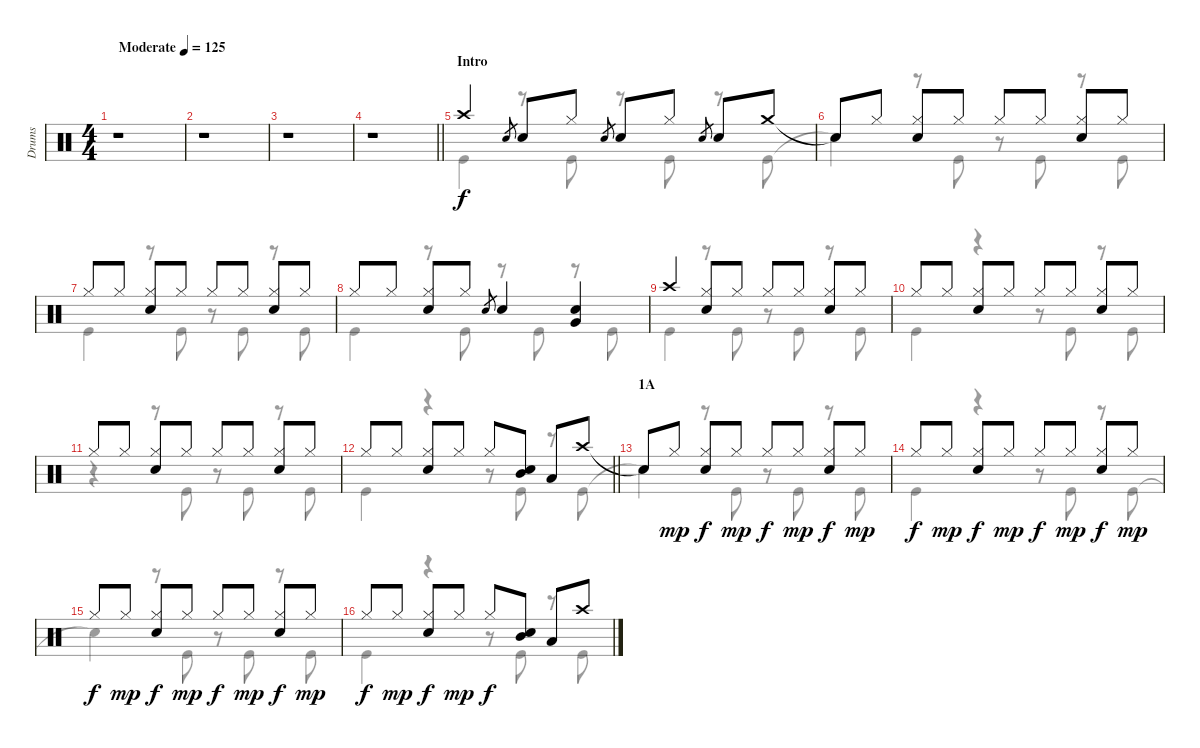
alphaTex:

\track ("Drums" "Drums") {instrument percussion}
\staff {score}
\articulation defaults
\voice
\ts (4 4)
\tempo (125 "Moderate")
\clef neutral
\ks c
r.1{dy f} |
r.1 |
r.1 |
\barLineRight lightlight
r.1 |
\section ("" "Intro")
"Crash high (hit)".4 "Snare (hit) 2".8{gr} "Snare (hit) 2".8 "Hi-Hat (closed)".8 "Snare (hit) 2".8{gr} "Snare (hit) 2".8 "Hi-Hat (closed)".8 "Snare (hit) 2".8{gr} "Snare (hit) 2".8 "Crash medium (hit)".8 |
"Snare (hit)"{t}.8 "Hi-Hat (closed)".8 ("Hi-Hat (closed)" "Snare (hit) 2").8 "Hi-Hat (closed)".8 "Hi-Hat (closed)".8 "Hi-Hat (closed)".8 ("Hi-Hat (closed)" "Snare (hit) 2").8 "Hi-Hat (closed)".8 |
"Hi-Hat (closed)".8 "Hi-Hat (closed)".8 ("Hi-Hat (closed)" "Snare (hit) 2").8 "Hi-Hat (closed)".8 "Hi-Hat (closed)".8 "Hi-Hat (closed)".8 ("Hi-Hat (closed)" "Snare (hit) 2").8 "Hi-Hat (closed)".8 |
"Hi-Hat (closed)".8 "Hi-Hat (closed)".8 ("Hi-Hat (closed)" "Snare (hit) 2").8 "Hi-Hat (closed)".8 "Snare (hit) 2".8{gr} "Snare (hit) 2".4 ("Very Low Tom (hit)" "Snare (hit) 2").4 |
"Crash high (hit)".4 ("Hi-Hat (closed)" "Snare (hit) 2").8 "Hi-Hat (closed)".8 "Hi-Hat (closed)".8 "Hi-Hat (closed)".8 ("Hi-Hat (closed)" "Snare (hit) 2").8 "Hi-Hat (closed)".8 |
"Hi-Hat (closed)".8 "Hi-Hat (closed)".8 ("Hi-Hat (closed)" "Snare (hit) 2").8 "Hi-Hat (closed)".8 "Hi-Hat (closed)".8 "Hi-Hat (closed)".8 ("Hi-Hat (closed)" "Snare (hit) 2").8 "Hi-Hat (closed)".8 |
"Hi-Hat (closed)".8 "Hi-Hat (closed)".8 ("Hi-Hat (closed)" "Snare (hit) 2").8 "Hi-Hat (closed)".8 "Hi-Hat (closed)".8 "Hi-Hat (closed)".8 ("Hi-Hat (closed)" "Snare (hit) 2").8 "Hi-Hat (closed)".8 |
\barLineRight lightlight "Hi-Hat (closed)".8 "Hi-Hat (closed)".8
("Hi-Hat (closed)" "Snare (hit) 2").8 "Hi-Hat (closed)".8 "Hi-Hat (closed)".8 ("Snare (hit) 2" "Mid Tom (hit)").8 "Low Tom (hit)".8 "Crash high (hit)".8 |
\section ("" "1A")
"Snare (hit)"{t}.8 "Hi-Hat (closed)".8{dy mp} ("Hi-Hat (closed)" "Snare (hit) 2").8{dy f} "Hi-Hat (closed)".8{dy mp} "Hi-Hat (closed)".8{dy f} "Hi-Hat (closed)".8{dy mp} ("Hi-Hat (closed)" "Snare (hit) 2").8{dy f} "Hi-Hat (closed)".8{dy mp} |
"Hi-Hat (closed)".8{dy f} "Hi-Hat (closed)".8{dy mp} ("Hi-Hat (closed)" "Snare (hit) 2").8{dy f} "Hi-Hat (closed)".8{dy mp} "Hi-Hat (closed)".8{dy f} "Hi-Hat (closed)".8{dy mp} ("Hi-Hat (closed)" "Snare (hit) 2").8{dy f} "Hi-Hat (closed)".8{dy mp} |
"Hi-Hat (closed)".8{dy f} "Hi-Hat (closed)".8{dy mp} ("Hi-Hat (closed)" "Snare (hit) 2").8{dy f} "Hi-Hat (closed)".8{dy mp} "Hi-Hat (closed)".8{dy f} "Hi-Hat (closed)".8{dy mp} ("Hi-Hat (closed)" "Snare (hit) 2").8{dy f} "Hi-Hat (closed)".8{dy mp} |
"Hi-Hat (closed)".8{dy f} "Hi-Hat (closed)".8{dy mp} ("Hi-Hat (closed)" "Snare (hit) 2").8{dy f} "Hi-Hat (closed)".8{dy mp} "Hi-Hat (closed)".8{dy f} ("Snare (hit) 2" "Mid Tom (hit)").8 "Low Tom (hit)".8 "Crash high (hit)".8
\voice
\clef neutral
\ottava regular
\simile none
\ks c
r.1{dy f} |
r.1 |
r.1 |
\barLineRight lightlight
r.1 |
"Kick (hit)".4 r.8 "Kick (hit)".8 r.8 "Kick (hit)".8 r.8 "Kick (hit)".8 |
"Snare (hit)"{t}.4 r.8 "Kick (hit)".8 r.8 "Kick (hit)".8 r.8 "Kick (hit)".8 |
"Kick (hit)".4 r.8 "Kick (hit)".8 r.8 "Kick (hit)".8 r.8 "Kick (hit)".8 |
"Kick (hit)".4 r.8 "Kick (hit)".8 r.8 "Kick (hit)".8 r.8 "Kick (hit)".8 |
"Kick (hit)".4 r.8 "Kick (hit)".8 r.8 "Kick (hit)".8 r.8 "Kick (hit)".8 |
"Kick (hit)".4 r.4 r.8 "Kick (hit)".8 r.8 "Kick (hit)".8 |
r.4 r.8 "Kick (hit)".8 r.8 "Kick (hit)".8 r.8 "Kick (hit)".8 |
\barLineRight lightlight "Kick (hit)".4
r.4 r.8 "Kick (hit)".8 r.8 "Kick (hit)".8 |
"Snare (hit)"{t}.4 r.8 "Kick (hit)".8 r.8 "Kick (hit)".8 r.8 "Kick (hit)".8 |
"Kick (hit)".4 r.4 r.8 "Kick (hit)".8 r.8 "Kick (hit)".8 |
"Snare (hit)"{t}.4 r.8 "Kick (hit)".8 r.8 "Kick (hit)".8 r.8 "Kick (hit)".8 |
"Kick (hit)".4 r.4 r.8 "Kick (hit)".8 r.8 "Kick (hit)".8
